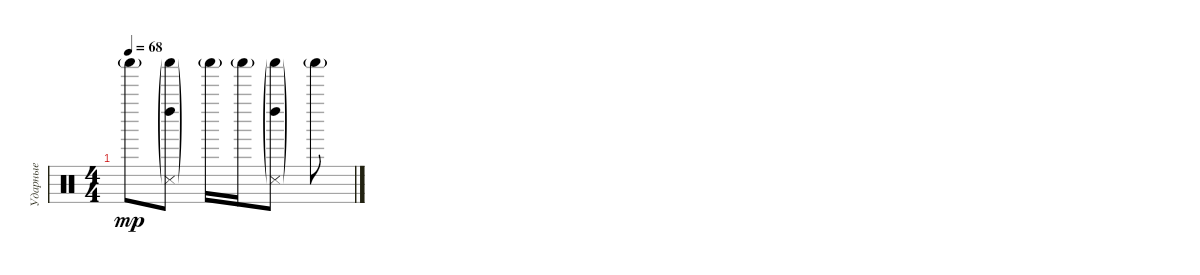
\track ("Ударные" "Ударные") {instrument percussion}
\staff {score}
\articulation defaults
\ts (4 4)
\tempo 68
\clef neutral
\ks c "Shaker (hit)"{g}.8{dy mp}
("Left Maraca (hit)"{g} "Shaker (hit)"{g} "Snare (side stick) 3"{g}).8 "Shaker (hit)"{g}.16 "Shaker (hit)"{g}.16 ("Left Maraca (hit)"{g} "Shaker (hit)"{g} "Snare (side stick) 3"{g}).8 "Shaker (hit)"{g}.8
